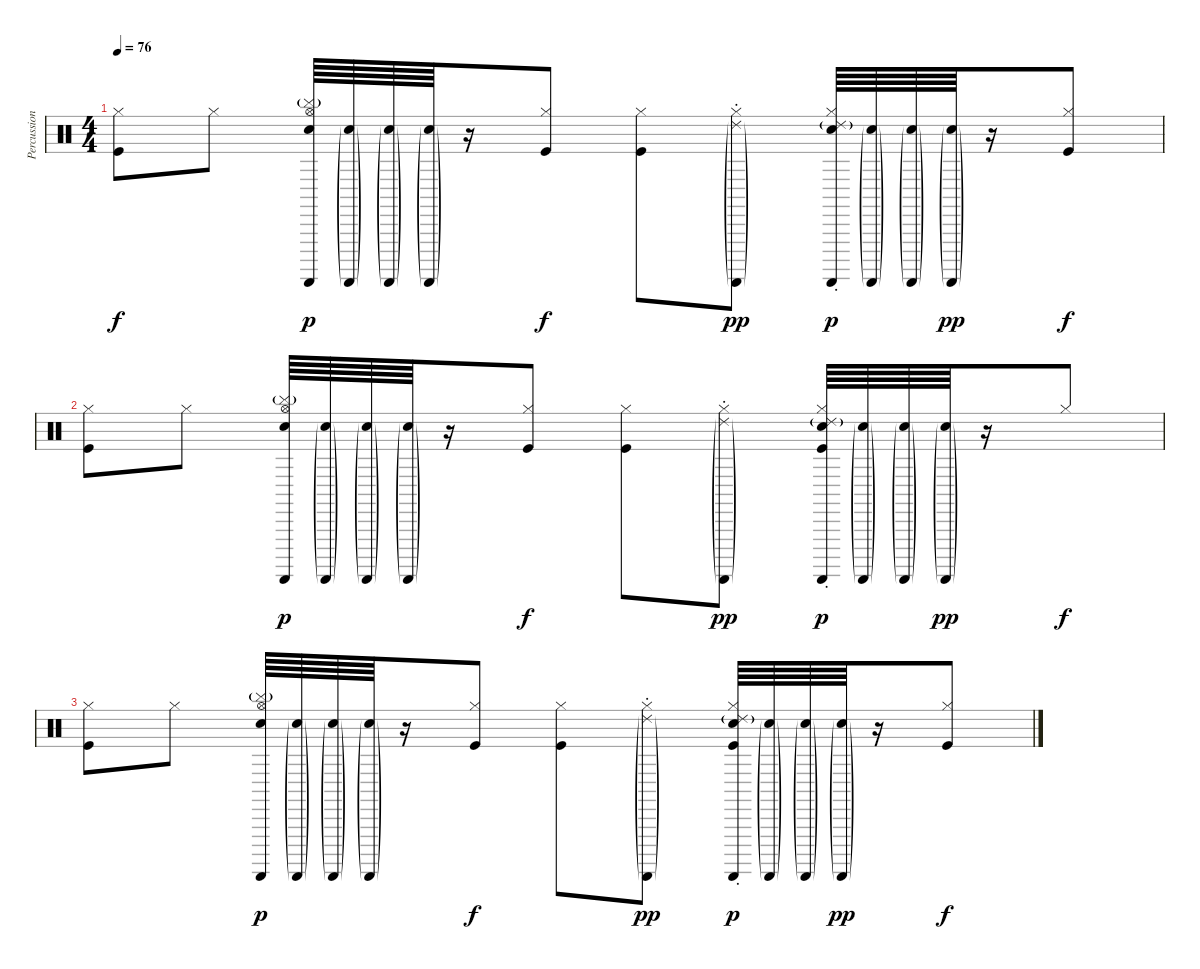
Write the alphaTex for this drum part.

\track ("Percussion" "Percussion") {instrument percussion}
\staff {score}
\articulation defaults
\ts (4 4)
\tempo 76
\clef neutral
\ks c
("Hi-Hat (closed)" "Kick (hit)").8{dy f} "Hi-Hat (closed)".8 ("Hi-Hat (open)" "Cymbal (hit)"{g} "Snare (hit) 2" "Guiro (scrap-return)").64{dy p} ("Snare (hit) 2"{g} "Guiro (scrap-return)"{g}).64 ("Snare (hit) 2"{g} "Guiro (scrap-return)"{g}).64 ("Snare (hit) 2"{g} "Guiro (scrap-return)"{g}).64 r.16 ("Hi-Hat (closed)" "Kick (hit)").8{dy f} ("Hi-Hat (closed)" "Kick (hit)").8 ("Hi-Hat (closed)" "Ride (choke) 2"{g} "Guiro (scrap-return)"{g}).8{dy pp} ("Hi-Hat (closed)" "Ride (choke) 2"{g} "Snare (hit) 2" "Guiro (scrap-return)").64{dy p} ("Snare (hit) 2"{g} "Guiro (scrap-return)"{g}).64 ("Snare (hit) 2"{g} "Guiro (scrap-return)"{g}).64 ("Snare (hit) 2"{g} "Guiro (scrap-return)"{g}).64{dy pp} r.16 ("Hi-Hat (closed)" "Kick (hit)").8{dy f} |
("Hi-Hat (closed)" "Kick (hit)").8 "Hi-Hat (closed)".8 ("Hi-Hat (open)" "Cymbal (hit)"{g} "Snare (hit) 2" "Guiro (scrap-return)").64{dy p} ("Snare (hit) 2"{g} "Guiro (scrap-return)"{g}).64 ("Snare (hit) 2"{g} "Guiro (scrap-return)"{g}).64 ("Snare (hit) 2"{g} "Guiro (scrap-return)"{g}).64 r.16 ("Hi-Hat (closed)" "Kick (hit)").8{dy f} ("Hi-Hat (closed)" "Kick (hit)").8 ("Hi-Hat (closed)" "Ride (choke) 2"{g} "Guiro (scrap-return)"{g}).8{dy pp} ("Hi-Hat (closed)" "Ride (choke) 2"{g} "Snare (hit) 2" "Guiro (scrap-return)" "Kick (hit)").64{dy p} ("Snare (hit) 2"{g} "Guiro (scrap-return)"{g}).64 ("Snare (hit) 2"{g} "Guiro (scrap-return)"{g}).64 ("Snare (hit) 2"{g} "Guiro (scrap-return)"{g}).64{dy pp} r.16 "Hi-Hat (closed)".8{dy f} |
("Hi-Hat (closed)" "Kick (hit)").8 "Hi-Hat (closed)".8 ("Hi-Hat (open)" "Cymbal (hit)"{g} "Snare (hit) 2" "Guiro (scrap-return)").64{dy p} ("Snare (hit) 2"{g} "Guiro (scrap-return)"{g}).64 ("Snare (hit) 2"{g} "Guiro (scrap-return)"{g}).64 ("Snare (hit) 2"{g} "Guiro (scrap-return)"{g}).64 r.16 ("Hi-Hat (closed)" "Kick (hit)").8{dy f} ("Hi-Hat (closed)" "Kick (hit)").8 ("Hi-Hat (closed)" "Ride (choke) 2"{g} "Guiro (scrap-return)"{g}).8{dy pp} ("Hi-Hat (closed)" "Ride (choke) 2"{g} "Snare (hit) 2" "Guiro (scrap-return)" "Kick (hit)").64{dy p} ("Snare (hit) 2"{g} "Guiro (scrap-return)"{g}).64 ("Snare (hit) 2"{g} "Guiro (scrap-return)"{g}).64 ("Snare (hit) 2"{g} "Guiro (scrap-return)"{g}).64{dy pp} r.16 ("Hi-Hat (closed)" "Kick (hit)").8{dy f}
